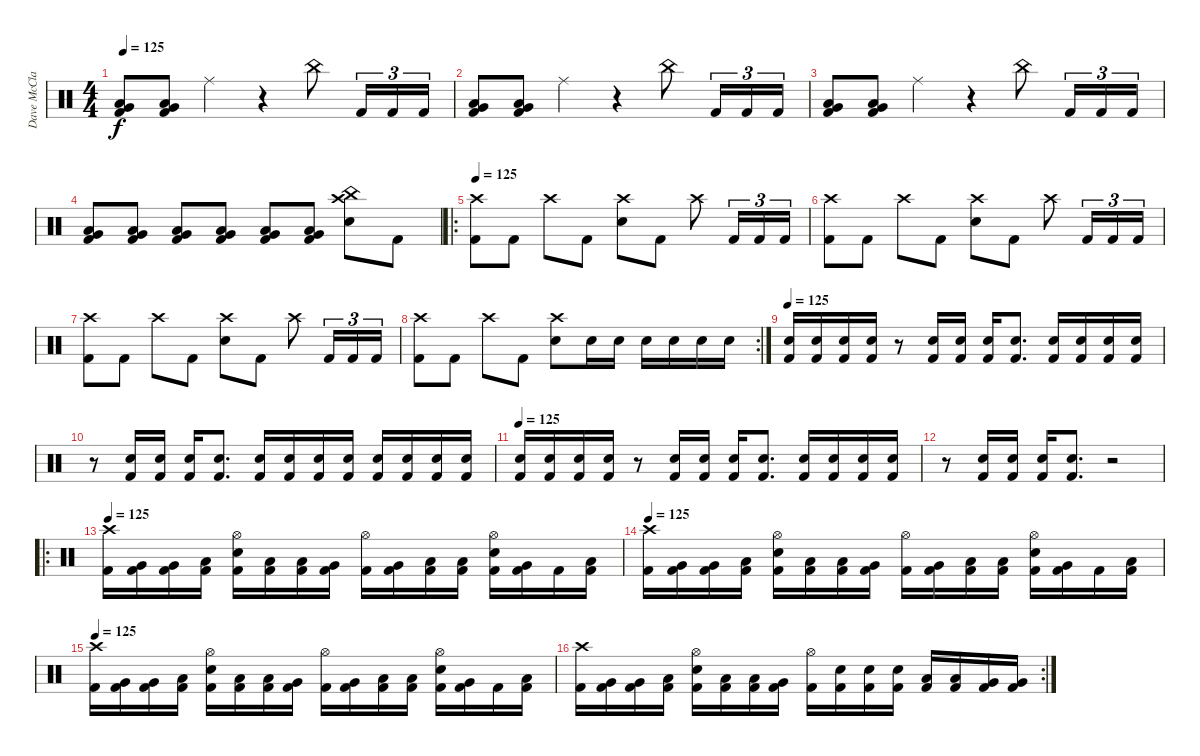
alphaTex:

\track ("Dave McClain" "Dave McCla") {instrument percussion}
\staff {score}
\articulation defaults
\ts (4 4)
\tempo 125
\clef neutral
\ks c
("Very Low Tom (hit)" "Low Floor Tom (hit)" "Kick (hit) 2").8{dy f} ("Very Low Tom (hit)" "Low Floor Tom (hit)" "Kick (hit) 2").8 "Ride (middle)".4 r.4 "China (hit)".8 "Kick (hit) 2".16{tu (3 2)} "Kick (hit) 2".16{tu (3 2)} "Kick (hit) 2".16{tu (3 2)} |
("Very Low Tom (hit)" "Low Floor Tom (hit)" "Kick (hit) 2").8 ("Very Low Tom (hit)" "Low Floor Tom (hit)" "Kick (hit) 2").8 "Ride (middle)".4 r.4 "China (hit)".8 "Kick (hit) 2".16{tu (3 2)} "Kick (hit) 2".16{tu (3 2)} "Kick (hit) 2".16{tu (3 2)} |
("Very Low Tom (hit)" "Low Floor Tom (hit)" "Kick (hit) 2").8 ("Very Low Tom (hit)" "Low Floor Tom (hit)" "Kick (hit) 2").8 "Ride (middle)".4 r.4 "China (hit)".8 "Kick (hit) 2".16{tu (3 2)} "Kick (hit) 2".16{tu (3 2)} "Kick (hit) 2".16{tu (3 2)} |
("Very Low Tom (hit)" "Low Floor Tom (hit)" "Kick (hit) 2").8 ("Very Low Tom (hit)" "Low Floor Tom (hit)" "Kick (hit) 2").8 ("Very Low Tom (hit)" "Low Floor Tom (hit)" "Kick (hit) 2").8 ("Very Low Tom (hit)" "Low Floor Tom (hit)" "Kick (hit) 2").8 ("Very Low Tom (hit)" "Low Floor Tom (hit)" "Kick (hit) 2").8 ("Very Low Tom (hit)" "Low Floor Tom (hit)" "Kick (hit) 2").8 ("Crash high (hit)" "China (hit)" "Snare (hit) 2").8 "Kick (hit) 2".8 |
\ro
\tempo 125
("Crash high (hit)" "Kick (hit) 2").8 "Kick (hit) 2".8 "Crash high (hit)".8 "Kick (hit) 2".8 ("Crash high (hit)" "Snare (hit) 2").8 "Kick (hit) 2".8 "Crash high (hit)".8 "Kick (hit) 2".16{tu (3 2)} "Kick (hit) 2".16{tu (3 2)} "Kick (hit) 2".16{tu (3 2)} |
("Crash high (hit)" "Kick (hit) 2").8 "Kick (hit) 2".8 "Crash high (hit)".8 "Kick (hit) 2".8 ("Crash high (hit)" "Snare (hit) 2").8 "Kick (hit) 2".8 "Crash high (hit)".8 "Kick (hit) 2".16{tu (3 2)} "Kick (hit) 2".16{tu (3 2)} "Kick (hit) 2".16{tu (3 2)} |
("Crash high (hit)" "Kick (hit) 2").8 "Kick (hit) 2".8 "Crash high (hit)".8 "Kick (hit) 2".8 ("Crash high (hit)" "Snare (hit) 2").8 "Kick (hit) 2".8 "Crash high (hit)".8 "Kick (hit) 2".16{tu (3 2)} "Kick (hit) 2".16{tu (3 2)} "Kick (hit) 2".16{tu (3 2)} |
\rc 2
("Crash high (hit)" "Kick (hit) 2").8 "Kick (hit) 2".8 "Crash high (hit)".8 "Kick (hit) 2".8 ("Crash high (hit)" "Snare (hit) 2").8 "Snare (hit) 2".16 "Snare (hit) 2".16 "Snare (hit) 2".16 "Snare (hit) 2".16 "Snare (hit) 2".16 "Snare (hit) 2".16 |
\tempo 125
("Kick (hit) 2" "Snare (hit) 2").16 ("Kick (hit) 2" "Snare (hit) 2").16 ("Kick (hit) 2" "Snare (hit) 2").16 ("Kick (hit) 2" "Snare (hit) 2").16 r.8 ("Kick (hit) 2" "Snare (hit) 2").16 ("Kick (hit) 2" "Snare (hit) 2").16 ("Kick (hit) 2" "Snare (hit) 2").16 ("Kick (hit) 2" "Snare (hit) 2").8{d} ("Kick (hit) 2" "Snare (hit) 2").16 ("Kick (hit) 2" "Snare (hit) 2").16 ("Kick (hit) 2" "Snare (hit) 2").16 ("Kick (hit) 2" "Snare (hit) 2").16 |
r.8 ("Kick (hit) 2" "Snare (hit) 2").16 ("Kick (hit) 2" "Snare (hit) 2").16 ("Kick (hit) 2" "Snare (hit) 2").16 ("Kick (hit) 2" "Snare (hit) 2").8{d} ("Kick (hit) 2" "Snare (hit) 2").16 ("Kick (hit) 2" "Snare (hit) 2").16 ("Kick (hit) 2" "Snare (hit) 2").16 ("Kick (hit) 2" "Snare (hit) 2").16 ("Kick (hit) 2" "Snare (hit) 2").16 ("Kick (hit) 2" "Snare (hit) 2").16 ("Kick (hit) 2" "Snare (hit) 2").16 ("Kick (hit) 2" "Snare (hit) 2").16 |
\tempo 125
("Kick (hit) 2" "Snare (hit) 2").16 ("Kick (hit) 2" "Snare (hit) 2").16 ("Kick (hit) 2" "Snare (hit) 2").16 ("Kick (hit) 2" "Snare (hit) 2").16 r.8 ("Kick (hit) 2" "Snare (hit) 2").16 ("Kick (hit) 2" "Snare (hit) 2").16 ("Kick (hit) 2" "Snare (hit) 2").16 ("Kick (hit) 2" "Snare (hit) 2").8{d} ("Kick (hit) 2" "Snare (hit) 2").16 ("Kick (hit) 2" "Snare (hit) 2").16 ("Kick (hit) 2" "Snare (hit) 2").16 ("Kick (hit) 2" "Snare (hit) 2").16 |
r.8 ("Kick (hit) 2" "Snare (hit) 2").16 ("Kick (hit) 2" "Snare (hit) 2").16 ("Kick (hit) 2" "Snare (hit) 2").16 ("Kick (hit) 2" "Snare (hit) 2").8{d} r.2 |
\ro
\tempo 125
("Crash high (hit)" "Kick (hit) 2").16 ("Very Low Tom (hit)" "Kick (hit) 2").16 ("Very Low Tom (hit)" "Kick (hit) 2").16 ("Low Floor Tom (hit)" "Kick (hit) 2").16 ("Hi-Hat (open)" "Snare (hit) 2" "Kick (hit) 2").16 ("Low Tom (hit)" "Kick (hit) 2").16 ("Low Tom (hit)" "Kick (hit) 2").16 ("Very Low Tom (hit)" "Kick (hit) 2").16 ("Hi-Hat (open)" "Kick (hit) 2").16 ("Very Low Tom (hit)" "Kick (hit) 2").16 ("Low Floor Tom (hit)" "Kick (hit) 2").16 ("Low Floor Tom (hit)" "Kick (hit) 2").16 ("Hi-Hat (open)" "Snare (hit) 2" "Kick (hit) 2").16 ("Very Low Tom (hit)" "Kick (hit) 2").16 "Kick (hit) 2".16 ("Low Floor Tom (hit)" "Kick (hit) 2").16 |
\tempo 125
("Crash high (hit)" "Kick (hit) 2").16 ("Very Low Tom (hit)" "Kick (hit) 2").16 ("Very Low Tom (hit)" "Kick (hit) 2").16 ("Low Floor Tom (hit)" "Kick (hit) 2").16 ("Hi-Hat (open)" "Snare (hit) 2" "Kick (hit) 2").16 ("Low Tom (hit)" "Kick (hit) 2").16 ("Low Tom (hit)" "Kick (hit) 2").16 ("Very Low Tom (hit)" "Kick (hit) 2").16 ("Hi-Hat (open)" "Kick (hit) 2").16 ("Very Low Tom (hit)" "Kick (hit) 2").16 ("Low Floor Tom (hit)" "Kick (hit) 2").16 ("Low Floor Tom (hit)" "Kick (hit) 2").16 ("Hi-Hat (open)" "Snare (hit) 2" "Kick (hit) 2").16 ("Very Low Tom (hit)" "Kick (hit) 2").16 "Kick (hit) 2".16 ("Low Floor Tom (hit)" "Kick (hit) 2").16 |
\tempo 125
("Crash high (hit)" "Kick (hit) 2").16 ("Very Low Tom (hit)" "Kick (hit) 2").16 ("Very Low Tom (hit)" "Kick (hit) 2").16 ("Low Floor Tom (hit)" "Kick (hit) 2").16 ("Hi-Hat (open)" "Snare (hit) 2" "Kick (hit) 2").16 ("Low Tom (hit)" "Kick (hit) 2").16 ("Low Tom (hit)" "Kick (hit) 2").16 ("Very Low Tom (hit)" "Kick (hit) 2").16 ("Hi-Hat (open)" "Kick (hit) 2").16 ("Very Low Tom (hit)" "Kick (hit) 2").16 ("Low Floor Tom (hit)" "Kick (hit) 2").16 ("Low Floor Tom (hit)" "Kick (hit) 2").16 ("Hi-Hat (open)" "Snare (hit) 2" "Kick (hit) 2").16 ("Very Low Tom (hit)" "Kick (hit) 2").16 "Kick (hit) 2".16 ("Low Floor Tom (hit)" "Kick (hit) 2").16 |
\rc 2
("Crash high (hit)" "Kick (hit) 2").16 ("Very Low Tom (hit)" "Kick (hit) 2").16 ("Very Low Tom (hit)" "Kick (hit) 2").16 ("Low Floor Tom (hit)" "Kick (hit) 2").16 ("Hi-Hat (open)" "Snare (hit) 2" "Kick (hit) 2").16 ("Low Tom (hit)" "Kick (hit) 2").16 ("Low Tom (hit)" "Kick (hit) 2").16 ("Very Low Tom (hit)" "Kick (hit) 2").16 ("Hi-Hat (open)" "Kick (hit) 2").16 ("Snare (hit) 2" "Kick (hit) 2").16 ("Snare (hit) 2" "Kick (hit) 2").16 ("Snare (hit) 2" "Kick (hit) 2").16 ("Low Tom (hit)" "Kick (hit) 2").16 ("Low Tom (hit)" "Kick (hit) 2").16 ("Very Low Tom (hit)" "Kick (hit) 2").16 ("Very Low Tom (hit)" "Kick (hit) 2").16
